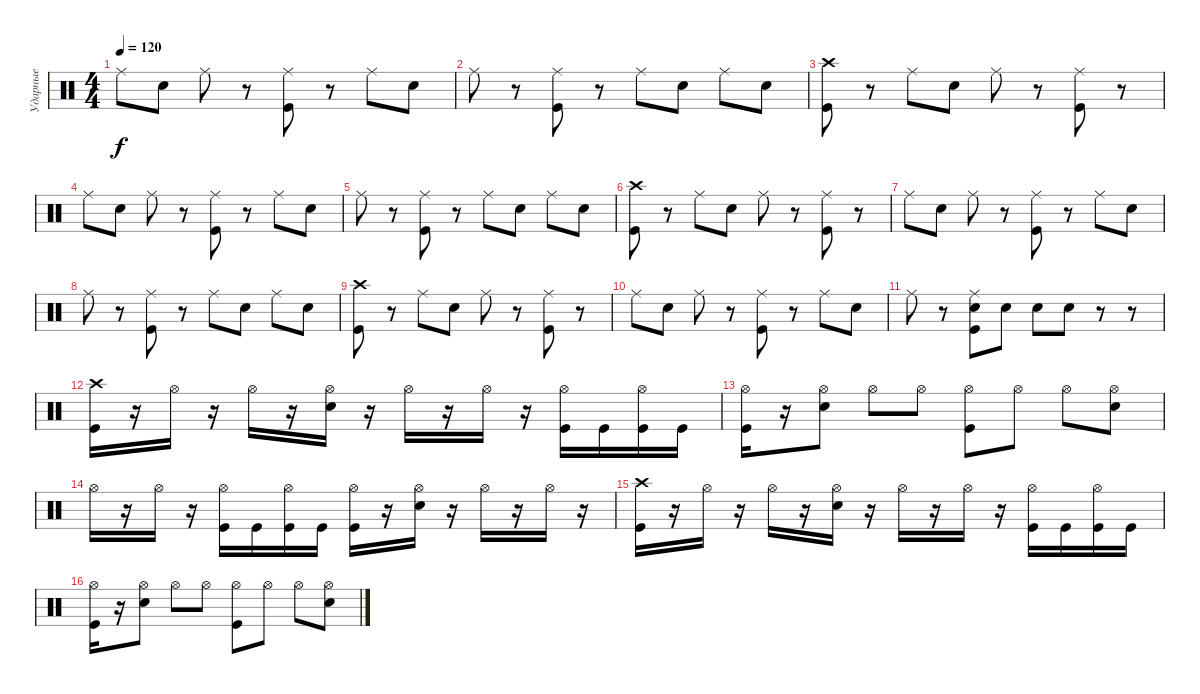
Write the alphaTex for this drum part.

\track ("Ударные" "Ударные") {instrument percussion}
\staff {score}
\articulation defaults
\ts (4 4)
\tempo 120
\clef neutral
\ks c "Ride (middle)".8{dy f} "Snare (hit) 2".8 "Ride (middle)".8
r.8 ("Ride (middle)" "Kick (hit)").8 r.8 "Ride (middle)".8 "Snare (hit) 2".8 |
"Ride (middle)".8 r.8 ("Ride (middle)" "Kick (hit)").8 r.8 "Ride (middle)".8 "Snare (hit) 2".8 "Ride (middle)".8 "Snare (hit) 2".8 |
("Crash high (hit)" "Kick (hit)").8 r.8 "Ride (middle)".8 "Snare (hit) 2".8 "Ride (middle)".8 r.8 ("Ride (middle)" "Kick (hit)").8 r.8 |
"Ride (middle)".8 "Snare (hit) 2".8 "Ride (middle)".8 r.8 ("Ride (middle)" "Kick (hit)").8 r.8 "Ride (middle)".8 "Snare (hit) 2".8 |
"Ride (middle)".8 r.8 ("Ride (middle)" "Kick (hit)").8 r.8 "Ride (middle)".8 "Snare (hit) 2".8 "Ride (middle)".8 "Snare (hit) 2".8 |
("Crash high (hit)" "Kick (hit)").8 r.8 "Ride (middle)".8 "Snare (hit) 2".8 "Ride (middle)".8 r.8 ("Ride (middle)" "Kick (hit)").8 r.8 |
"Ride (middle)".8 "Snare (hit) 2".8 "Ride (middle)".8 r.8 ("Ride (middle)" "Kick (hit)").8 r.8 "Ride (middle)".8 "Snare (hit) 2".8 |
"Ride (middle)".8 r.8 ("Ride (middle)" "Kick (hit)").8 r.8 "Ride (middle)".8 "Snare (hit) 2".8 "Ride (middle)".8 "Snare (hit) 2".8 |
("Crash high (hit)" "Kick (hit)").8 r.8 "Ride (middle)".8 "Snare (hit) 2".8 "Ride (middle)".8 r.8 ("Ride (middle)" "Kick (hit)").8 r.8 |
"Ride (middle)".8 "Snare (hit) 2".8 "Ride (middle)".8 r.8 ("Ride (middle)" "Kick (hit)").8 r.8 "Ride (middle)".8 "Snare (hit) 2".8 |
"Ride (middle)".8 r.8 ("Ride (middle)" "Snare (hit) 2" "Kick (hit)").8 "Snare (hit) 2".8 "Snare (hit) 2".8 "Snare (hit) 2".8 r.8 r.8 |
("Crash high (hit)" "Kick (hit)").16 r.16 "Hi-Hat (open)".16 r.16 "Hi-Hat (open)".16 r.16 ("Hi-Hat (open)" "Snare (hit) 2").16 r.16 "Hi-Hat (open)".16 r.16 "Hi-Hat (open)".16 r.16 ("Hi-Hat (open)" "Kick (hit)").16 "Kick (hit)".16 ("Hi-Hat (open)" "Kick (hit)").16 "Kick (hit)".16 |
("Hi-Hat (open)" "Kick (hit)").16 r.16 ("Hi-Hat (open)" "Snare (hit) 2").8 "Hi-Hat (open)".8 "Hi-Hat (open)".8 ("Hi-Hat (open)" "Kick (hit)").8 "Hi-Hat (open)".8 "Hi-Hat (open)".8 ("Hi-Hat (open)" "Snare (hit) 2").8 |
"Hi-Hat (open)".16 r.16 "Hi-Hat (open)".16 r.16 ("Hi-Hat (open)" "Kick (hit)").16 "Kick (hit)".16 ("Hi-Hat (open)" "Kick (hit)").16 "Kick (hit)".16 ("Hi-Hat (open)" "Kick (hit)").16 r.16 ("Hi-Hat (open)" "Snare (hit) 2").16 r.16 "Hi-Hat (open)".16 r.16 "Hi-Hat (open)".16 r.16 |
("Crash high (hit)" "Kick (hit)").16 r.16 "Hi-Hat (open)".16 r.16 "Hi-Hat (open)".16 r.16 ("Hi-Hat (open)" "Snare (hit) 2").16 r.16 "Hi-Hat (open)".16 r.16 "Hi-Hat (open)".16 r.16 ("Hi-Hat (open)" "Kick (hit)").16 "Kick (hit)".16 ("Hi-Hat (open)" "Kick (hit)").16 "Kick (hit)".16 |
("Hi-Hat (open)" "Kick (hit)").16 r.16 ("Hi-Hat (open)" "Snare (hit) 2").8 "Hi-Hat (open)".8 "Hi-Hat (open)".8 ("Hi-Hat (open)" "Kick (hit)").8 "Hi-Hat (open)".8 "Hi-Hat (open)".8 ("Hi-Hat (open)" "Snare (hit) 2").8
